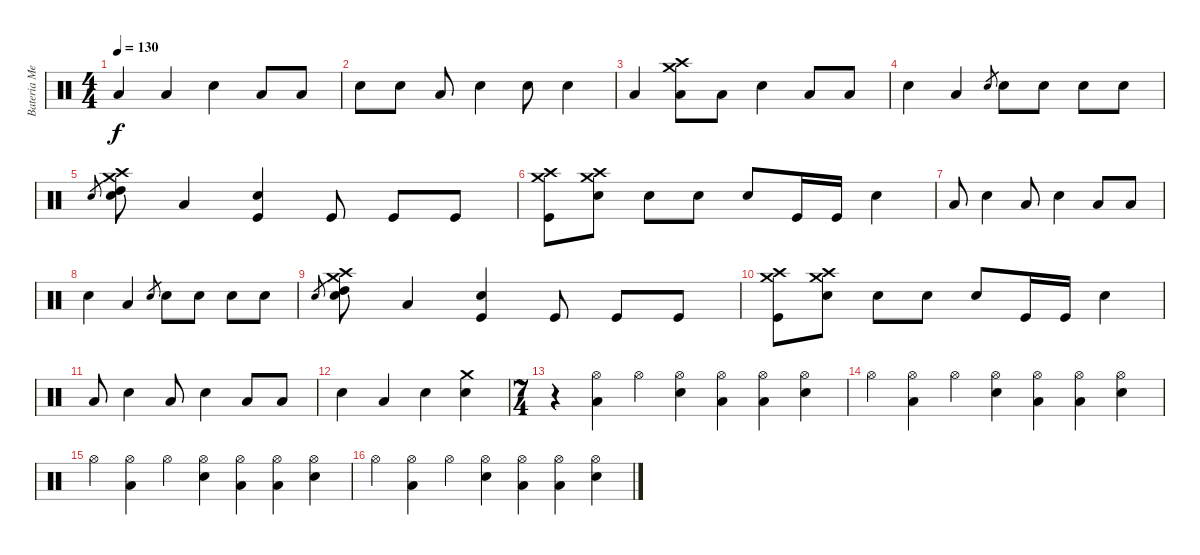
\track ("Bateria Men" "Bateria Me") {instrument percussion}
\staff {score}
\articulation defaults
\ts (4 4)
\tempo 130
\clef neutral
\ks c "Low Floor Tom (hit)".4{dy f} "Low Floor Tom (hit)".4 "Electric Snare (hit)".4 "Low Floor Tom (hit)".8 "Low Floor Tom (hit)".8
|
"Electric Snare (hit)".8 "Electric Snare (hit)".8 "Low Floor Tom (hit)".8 "Electric Snare (hit)".4 "Electric Snare (hit)".8 "Electric Snare (hit)".4 |
"Low Floor Tom (hit)".4 ("Crash medium (hit)" "Crash high (hit)" "Low Floor Tom (hit)").8 "Low Floor Tom (hit)".8 "Electric Snare (hit)".4 "Low Floor Tom (hit)".8 "Low Floor Tom (hit)".8 |
"Electric Snare (hit)".4 "Low Floor Tom (hit)".4 "Electric Snare (hit)".8{gr} "Electric Snare (hit)".8 "Electric Snare (hit)".8 "Electric Snare (hit)".8 "Electric Snare (hit)".8 |
"Electric Snare (hit)".8{gr} ("Crash high (hit)" "Crash medium (hit)" "Electric Snare (hit)" "High Tom (hit)").8 "Low Floor Tom (hit)".4 ("Electric Snare (hit)" "Kick (hit)").4 "Kick (hit)".8 "Kick (hit)".8 "Kick (hit)".8 |
("Crash high (hit)" "Crash medium (hit)" "Kick (hit)").8 ("Crash high (hit)" "Crash medium (hit)" "Electric Snare (hit)").8 "Electric Snare (hit)".8 "Electric Snare (hit)".8 "Electric Snare (hit)".8 "Kick (hit)".16 "Kick (hit)".16 "Electric Snare (hit)".4 |
"Low Floor Tom (hit)".8 "Electric Snare (hit)".4 "Low Floor Tom (hit)".8 "Electric Snare (hit)".4 "Low Floor Tom (hit)".8 "Low Floor Tom (hit)".8 |
"Electric Snare (hit)".4 "Low Floor Tom (hit)".4 "Electric Snare (hit)".8{gr} "Electric Snare (hit)".8 "Electric Snare (hit)".8 "Electric Snare (hit)".8 "Electric Snare (hit)".8 |
"Electric Snare (hit)".8{gr} ("Crash high (hit)" "Crash medium (hit)" "Electric Snare (hit)" "High Tom (hit)").8 "Low Floor Tom (hit)".4 ("Electric Snare (hit)" "Kick (hit)").4 "Kick (hit)".8 "Kick (hit)".8 "Kick (hit)".8 |
("Crash high (hit)" "Crash medium (hit)" "Kick (hit)").8 ("Crash high (hit)" "Crash medium (hit)" "Electric Snare (hit)").8 "Electric Snare (hit)".8 "Electric Snare (hit)".8 "Electric Snare (hit)".8 "Kick (hit)".16 "Kick (hit)".16 "Electric Snare (hit)".4 |
"Low Floor Tom (hit)".8 "Electric Snare (hit)".4 "Low Floor Tom (hit)".8 "Electric Snare (hit)".4 "Low Floor Tom (hit)".8 "Low Floor Tom (hit)".8 |
"Electric Snare (hit)".4 "Low Floor Tom (hit)".4 "Electric Snare (hit)".4 ("Crash medium (hit)" "Electric Snare (hit)").4 |
\ts (7 4)
r.4 ("Low Floor Tom (hit)" "Hi-Hat (open)").4 "Hi-Hat (open)".4 ("Hi-Hat (open)" "Electric Snare (hit)").4 ("Hi-Hat (open)" "Low Floor Tom (hit)").4 ("Hi-Hat (open)" "Low Floor Tom (hit)").4 ("Hi-Hat (open)" "Electric Snare (hit)").4 |
"Hi-Hat (open)".4 ("Low Floor Tom (hit)" "Hi-Hat (open)").4 "Hi-Hat (open)".4 ("Hi-Hat (open)" "Electric Snare (hit)").4 ("Hi-Hat (open)" "Low Floor Tom (hit)").4 ("Hi-Hat (open)" "Low Floor Tom (hit)").4 ("Hi-Hat (open)" "Electric Snare (hit)").4 |
"Hi-Hat (open)".4 ("Low Floor Tom (hit)" "Hi-Hat (open)").4 "Hi-Hat (open)".4 ("Hi-Hat (open)" "Electric Snare (hit)").4 ("Hi-Hat (open)" "Low Floor Tom (hit)").4 ("Hi-Hat (open)" "Low Floor Tom (hit)").4 ("Hi-Hat (open)" "Electric Snare (hit)").4 |
"Hi-Hat (open)".4 ("Low Floor Tom (hit)" "Hi-Hat (open)").4 "Hi-Hat (open)".4 ("Hi-Hat (open)" "Electric Snare (hit)").4 ("Hi-Hat (open)" "Low Floor Tom (hit)").4 ("Hi-Hat (open)" "Low Floor Tom (hit)").4 ("Hi-Hat (open)" "Electric Snare (hit)").4
